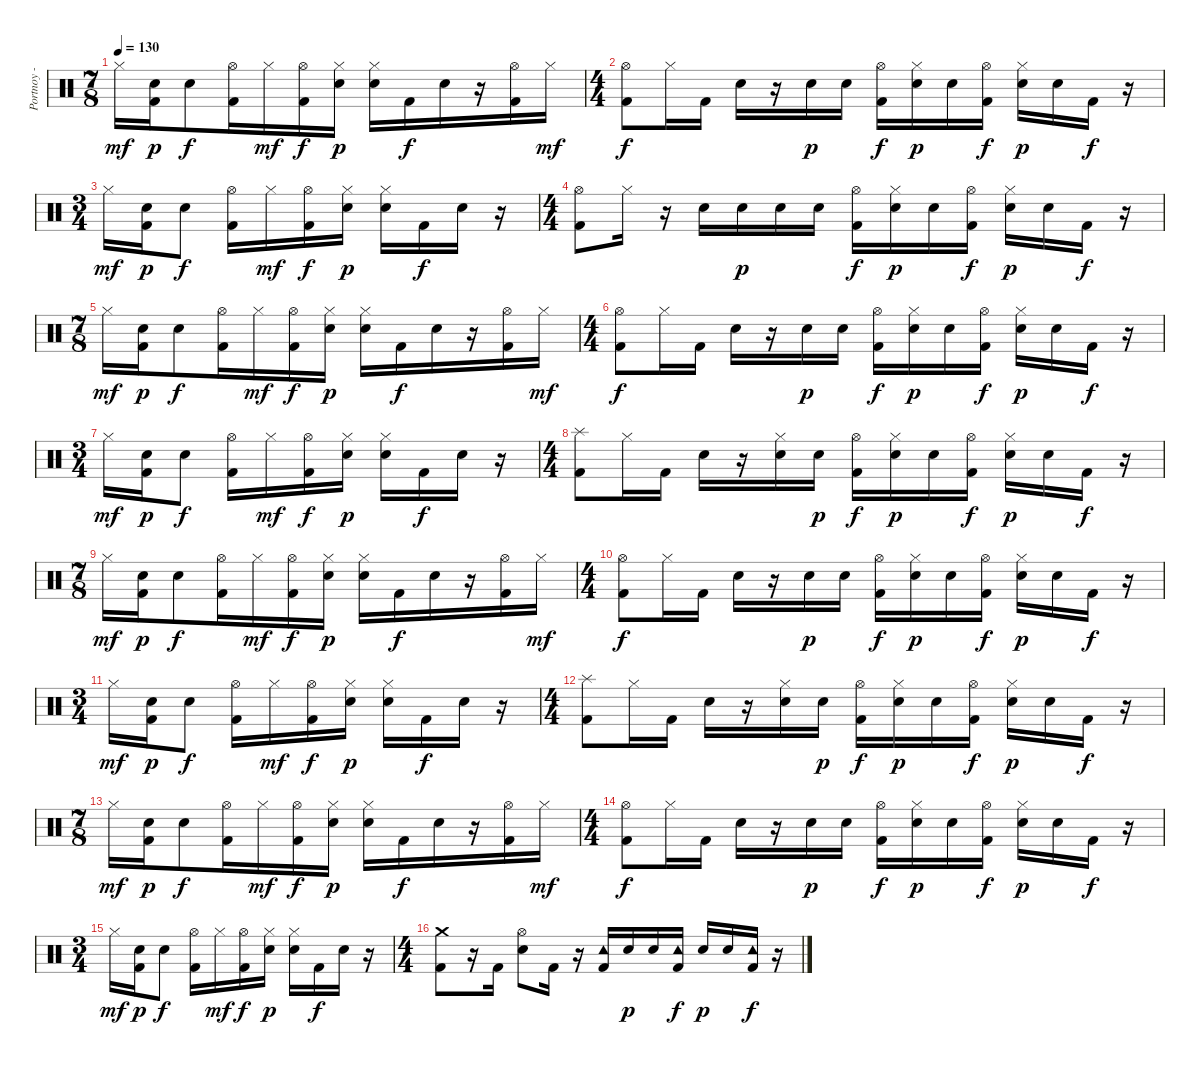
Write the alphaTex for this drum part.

\track ("Portnoy - Drums" "Portnoy - ") {instrument percussion}
\staff {score}
\articulation defaults
\ts (7 8)
\tempo 130
\clef neutral
\ks c "Hi-Hat (closed)".16{dy mf}
("Kick (hit) 2" "Electric Snare (hit)").16{dy p} "Electric Snare (hit)".8{dy f} ("Kick (hit) 2" "Hi-Hat (open)").16 "Hi-Hat (closed)".16{dy mf} ("Kick (hit) 2" "Hi-Hat (open)").16{dy f} ("Hi-Hat (closed)" "Electric Snare (hit)").16{dy p} ("Hi-Hat (closed)" "Electric Snare (hit)").16 "Kick (hit) 2".16{dy f} "Electric Snare (hit)".16 r.16 ("Kick (hit) 2" "Hi-Hat (open)").16 "Hi-Hat (closed)".16{dy mf} |
\ts (4 4)
("Hi-Hat (open)" "Kick (hit) 2").8{dy f} "Hi-Hat (closed)".16 "Kick (hit) 2".16 "Electric Snare (hit)".16 r.16 "Electric Snare (hit)".16{dy p} "Electric Snare (hit)".16 ("Kick (hit) 2" "Hi-Hat (open)").16{dy f} ("Hi-Hat (closed)" "Electric Snare (hit)").16{dy p} "Electric Snare (hit)".16 ("Kick (hit) 2" "Hi-Hat (open)").16{dy f} ("Hi-Hat (closed)" "Electric Snare (hit)").16{dy p} "Electric Snare (hit)".16 "Kick (hit) 2".16{dy f} r.16 |
\ts (3 4)
"Hi-Hat (closed)".16{dy mf} ("Kick (hit) 2" "Electric Snare (hit)").16{dy p} "Electric Snare (hit)".8{dy f} ("Kick (hit) 2" "Hi-Hat (open)").16 "Hi-Hat (closed)".16{dy mf} ("Kick (hit) 2" "Hi-Hat (open)").16{dy f} ("Hi-Hat (closed)" "Electric Snare (hit)").16{dy p} ("Hi-Hat (closed)" "Electric Snare (hit)").16 "Kick (hit) 2".16{dy f} "Electric Snare (hit)".16 r.16 |
\ts (4 4)
("Hi-Hat (open)" "Kick (hit) 2").8 "Hi-Hat (closed)".16 r.16 "Electric Snare (hit)".16 "Electric Snare (hit)".16{dy p} "Electric Snare (hit)".16 "Electric Snare (hit)".16 ("Kick (hit) 2" "Hi-Hat (open)").16{dy f} ("Hi-Hat (closed)" "Electric Snare (hit)").16{dy p} "Electric Snare (hit)".16 ("Kick (hit) 2" "Hi-Hat (open)").16{dy f} ("Hi-Hat (closed)" "Electric Snare (hit)").16{dy p} "Electric Snare (hit)".16 "Kick (hit) 2".16{dy f} r.16 |
\ts (7 8)
"Hi-Hat (closed)".16{dy mf} ("Kick (hit) 2" "Electric Snare (hit)").16{dy p} "Electric Snare (hit)".8{dy f} ("Kick (hit) 2" "Hi-Hat (open)").16 "Hi-Hat (closed)".16{dy mf} ("Kick (hit) 2" "Hi-Hat (open)").16{dy f} ("Hi-Hat (closed)" "Electric Snare (hit)").16{dy p} ("Hi-Hat (closed)" "Electric Snare (hit)").16 "Kick (hit) 2".16{dy f} "Electric Snare (hit)".16 r.16 ("Kick (hit) 2" "Hi-Hat (open)").16 "Hi-Hat (closed)".16{dy mf} |
\ts (4 4)
("Hi-Hat (open)" "Kick (hit) 2").8{dy f} "Hi-Hat (closed)".16 "Kick (hit) 2".16 "Electric Snare (hit)".16 r.16 "Electric Snare (hit)".16{dy p} "Electric Snare (hit)".16 ("Kick (hit) 2" "Hi-Hat (open)").16{dy f} ("Hi-Hat (closed)" "Electric Snare (hit)").16{dy p} "Electric Snare (hit)".16 ("Kick (hit) 2" "Hi-Hat (open)").16{dy f} ("Hi-Hat (closed)" "Electric Snare (hit)").16{dy p} "Electric Snare (hit)".16 "Kick (hit) 2".16{dy f} r.16 |
\ts (3 4)
"Hi-Hat (closed)".16{dy mf} ("Kick (hit) 2" "Electric Snare (hit)").16{dy p} "Electric Snare (hit)".8{dy f} ("Kick (hit) 2" "Hi-Hat (open)").16 "Hi-Hat (closed)".16{dy mf} ("Kick (hit) 2" "Hi-Hat (open)").16{dy f} ("Hi-Hat (closed)" "Electric Snare (hit)").16{dy p} ("Hi-Hat (closed)" "Electric Snare (hit)").16 "Kick (hit) 2".16{dy f} "Electric Snare (hit)".16 r.16 |
\ts (4 4)
("Kick (hit) 2" "Splash (hit)").8 "Hi-Hat (closed)".16 "Kick (hit) 2".16 "Electric Snare (hit)".16 r.16 ("Electric Snare (hit)" "Hi-Hat (closed)").16 "Electric Snare (hit)".16{dy p} ("Kick (hit) 2" "Hi-Hat (open)").16{dy f} ("Hi-Hat (closed)" "Electric Snare (hit)").16{dy p} "Electric Snare (hit)".16 ("Kick (hit) 2" "Hi-Hat (open)").16{dy f} ("Hi-Hat (closed)" "Electric Snare (hit)").16{dy p} "Electric Snare (hit)".16 "Kick (hit) 2".16{dy f} r.16 |
\ts (7 8)
"Hi-Hat (closed)".16{dy mf} ("Kick (hit) 2" "Electric Snare (hit)").16{dy p} "Electric Snare (hit)".8{dy f} ("Kick (hit) 2" "Hi-Hat (open)").16 "Hi-Hat (closed)".16{dy mf} ("Kick (hit) 2" "Hi-Hat (open)").16{dy f} ("Hi-Hat (closed)" "Electric Snare (hit)").16{dy p} ("Hi-Hat (closed)" "Electric Snare (hit)").16 "Kick (hit) 2".16{dy f} "Electric Snare (hit)".16 r.16 ("Kick (hit) 2" "Hi-Hat (open)").16 "Hi-Hat (closed)".16{dy mf} |
\ts (4 4)
("Kick (hit) 2" "Hi-Hat (open)").8{dy f} "Hi-Hat (closed)".16 "Kick (hit) 2".16 "Electric Snare (hit)".16 r.16 "Electric Snare (hit)".16{dy p} "Electric Snare (hit)".16 ("Kick (hit) 2" "Hi-Hat (open)").16{dy f} ("Hi-Hat (closed)" "Electric Snare (hit)").16{dy p} "Electric Snare (hit)".16 ("Kick (hit) 2" "Hi-Hat (open)").16{dy f} ("Hi-Hat (closed)" "Electric Snare (hit)").16{dy p} "Electric Snare (hit)".16 "Kick (hit) 2".16{dy f} r.16 |
\ts (3 4)
"Hi-Hat (closed)".16{dy mf} ("Kick (hit) 2" "Electric Snare (hit)").16{dy p} "Electric Snare (hit)".8{dy f} ("Kick (hit) 2" "Hi-Hat (open)").16 "Hi-Hat (closed)".16{dy mf} ("Kick (hit) 2" "Hi-Hat (open)").16{dy f} ("Hi-Hat (closed)" "Electric Snare (hit)").16{dy p} ("Hi-Hat (closed)" "Electric Snare (hit)").16 "Kick (hit) 2".16{dy f} "Electric Snare (hit)".16 r.16 |
\ts (4 4)
("Splash (hit)" "Kick (hit) 2").8 "Hi-Hat (closed)".16 "Kick (hit) 2".16 "Electric Snare (hit)".16 r.16 ("Electric Snare (hit)" "Hi-Hat (closed)").16 "Electric Snare (hit)".16{dy p} ("Kick (hit) 2" "Hi-Hat (open)").16{dy f} ("Hi-Hat (closed)" "Electric Snare (hit)").16{dy p} "Electric Snare (hit)".16 ("Kick (hit) 2" "Hi-Hat (open)").16{dy f} ("Hi-Hat (closed)" "Electric Snare (hit)").16{dy p} "Electric Snare (hit)".16 "Kick (hit) 2".16{dy f} r.16 |
\ts (7 8)
"Hi-Hat (closed)".16{dy mf} ("Kick (hit) 2" "Electric Snare (hit)").16{dy p} "Electric Snare (hit)".8{dy f} ("Kick (hit) 2" "Hi-Hat (open)").16 "Hi-Hat (closed)".16{dy mf} ("Kick (hit) 2" "Hi-Hat (open)").16{dy f} ("Hi-Hat (closed)" "Electric Snare (hit)").16{dy p} ("Hi-Hat (closed)" "Electric Snare (hit)").16 "Kick (hit) 2".16{dy f} "Electric Snare (hit)".16 r.16 ("Kick (hit) 2" "Hi-Hat (open)").16 "Hi-Hat (closed)".16{dy mf} |
\ts (4 4)
("Kick (hit) 2" "Hi-Hat (open)").8{dy f} "Hi-Hat (closed)".16 "Kick (hit) 2".16 "Electric Snare (hit)".16 r.16 "Electric Snare (hit)".16{dy p} "Electric Snare (hit)".16 ("Kick (hit) 2" "Hi-Hat (open)").16{dy f} ("Hi-Hat (closed)" "Electric Snare (hit)").16{dy p} "Electric Snare (hit)".16 ("Kick (hit) 2" "Hi-Hat (open)").16{dy f} ("Hi-Hat (closed)" "Electric Snare (hit)").16{dy p} "Electric Snare (hit)".16 "Kick (hit) 2".16{dy f} r.16 |
\ts (3 4)
"Hi-Hat (closed)".16{dy mf} ("Kick (hit) 2" "Electric Snare (hit)").16{dy p} "Electric Snare (hit)".8{dy f} ("Kick (hit) 2" "Hi-Hat (open)").16 "Hi-Hat (closed)".16{dy mf} ("Kick (hit) 2" "Hi-Hat (open)").16{dy f} ("Hi-Hat (closed)" "Electric Snare (hit)").16{dy p} ("Hi-Hat (closed)" "Electric Snare (hit)").16 "Kick (hit) 2".16{dy f} "Electric Snare (hit)".16 r.16 |
\ts (4 4)
("Kick (hit) 2" "Crash medium (hit)").8 r.16 "Kick (hit) 2".16 ("Electric Snare (hit)" "Hi-Hat (open)").8 "Kick (hit) 2".16 r.16 ("Kick (hit) 2" "Tambourine (hit)").16 "Electric Snare (hit)".16{dy p} "Electric Snare (hit)".16 ("Kick (hit) 2" "Tambourine (hit)").16{dy f} "Electric Snare (hit)".16{dy p} "Electric Snare (hit)".16 ("Kick (hit) 2" "Tambourine (hit)").16{dy f} r.16
